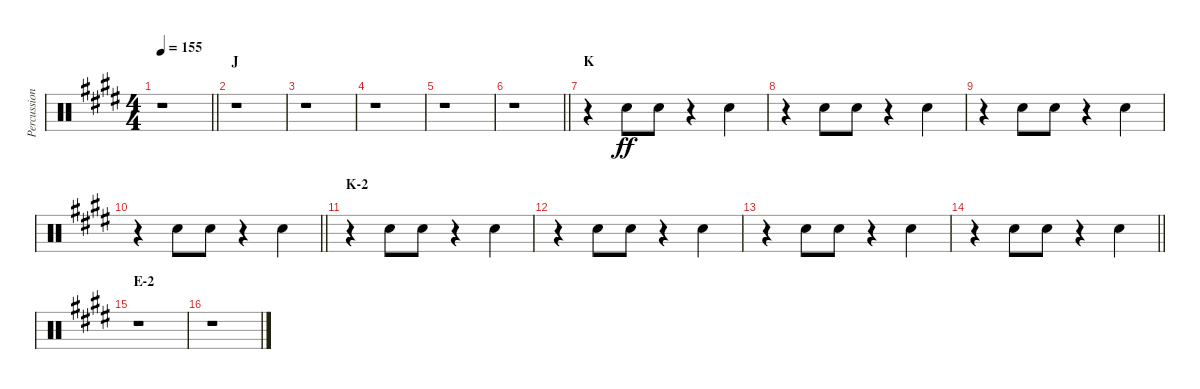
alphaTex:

\track ("Percussion" "Percussion") {instrument percussion}
\staff {score}
\articulation defaults
\ts (4 4)
\tempo 155
\clef neutral
\barLineRight lightlight
\ks e
r.1{dy ff} |
\section ("" "J")
r.1 |
r.1 |
r.1 |
r.1 |
\barLineRight lightlight
r.1 |
\section ("" "K")
r.4 "Hand Clap (hit)".8 "Hand Clap (hit)".8 r.4 "Hand Clap (hit)".4 |
r.4 "Hand Clap (hit)".8 "Hand Clap (hit)".8 r.4 "Hand Clap (hit)".4 |
r.4 "Hand Clap (hit)".8 "Hand Clap (hit)".8 r.4 "Hand Clap (hit)".4 |
\barLineRight lightlight
r.4 "Hand Clap (hit)".8 "Hand Clap (hit)".8 r.4 "Hand Clap (hit)".4 |
\section ("" "K-2")
r.4 "Hand Clap (hit)".8 "Hand Clap (hit)".8 r.4 "Hand Clap (hit)".4 |
r.4 "Hand Clap (hit)".8 "Hand Clap (hit)".8 r.4 "Hand Clap (hit)".4 |
r.4 "Hand Clap (hit)".8 "Hand Clap (hit)".8 r.4 "Hand Clap (hit)".4 |
\barLineRight lightlight
r.4 "Hand Clap (hit)".8 "Hand Clap (hit)".8 r.4 "Hand Clap (hit)".4 |
\section ("" "E-2")
r.1 |
r.1
